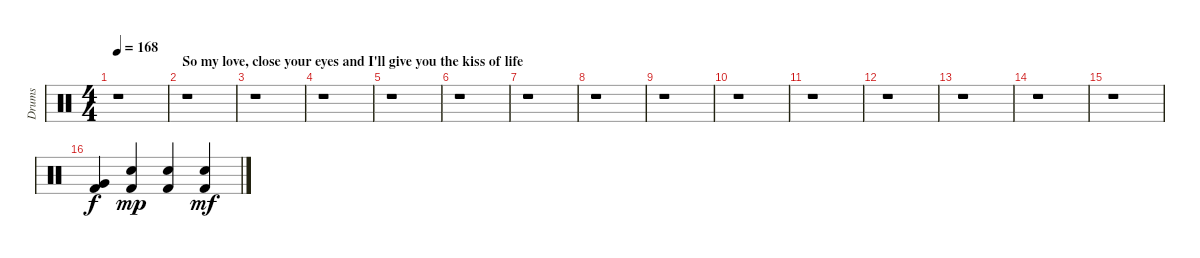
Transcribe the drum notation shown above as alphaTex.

\track ("Drums" "Drums") {instrument percussion}
\staff {score}
\articulation defaults
\ts (4 4)
\tempo 168
\clef neutral
\ks c
r.1{dy f} |
\section ("" "So my love, close your eyes and I'll give you the kiss of life")
r.1 |
r.1 |
r.1 |
r.1 |
r.1 |
r.1 |
r.1 |
r.1 |
r.1 |
r.1 |
r.1 |
r.1 |
r.1 |
r.1 |
("Kick (hit) 2" "Very Low Tom (hit)").4 ("Kick (hit) 2" "Electric Snare (hit)").4{dy mp} ("Kick (hit) 2" "Electric Snare (hit)").4 ("Kick (hit) 2" "Electric Snare (hit)").4{dy mf}
